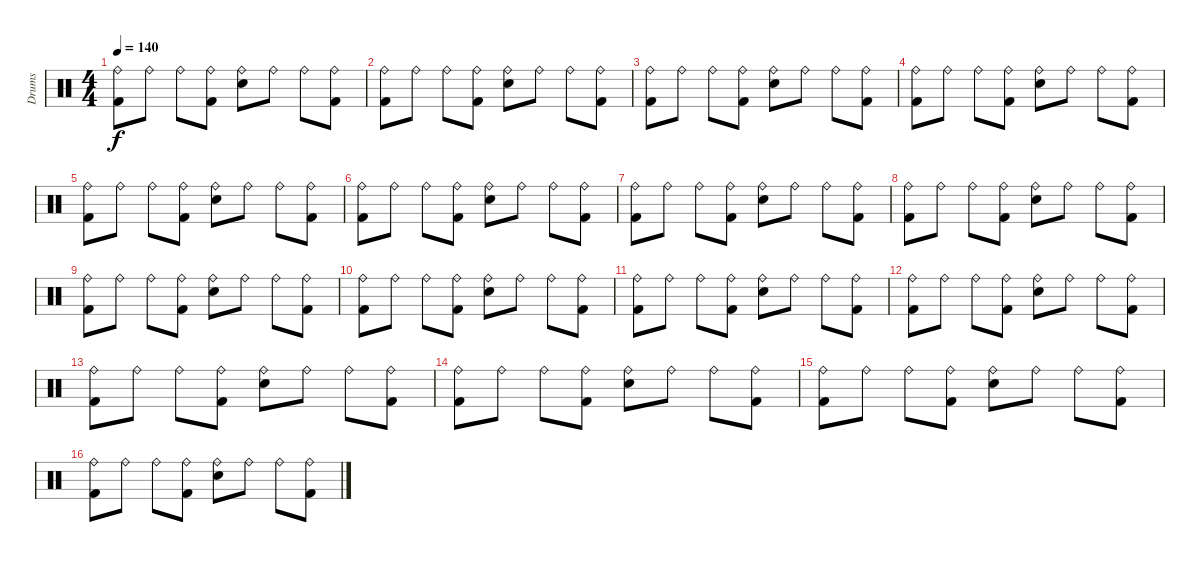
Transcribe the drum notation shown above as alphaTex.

\track ("Drums" "Drums") {instrument percussion}
\staff {score}
\articulation defaults
\ts (4 4)
\tempo 140
\clef neutral
\ks c
("Ride (bell)" "Kick (hit) 2").8{dy f} "Ride (bell)".8 "Ride (bell)".8 ("Ride (bell)" "Kick (hit) 2").8 ("Ride (bell)" "Snare (hit) 2").8 "Ride (bell)".8 "Ride (bell)".8 ("Ride (bell)" "Kick (hit) 2").8 |
("Ride (bell)" "Kick (hit) 2").8 "Ride (bell)".8 "Ride (bell)".8 ("Ride (bell)" "Kick (hit) 2").8 ("Ride (bell)" "Snare (hit) 2").8 "Ride (bell)".8 "Ride (bell)".8 ("Ride (bell)" "Kick (hit) 2").8 |
("Ride (bell)" "Kick (hit) 2").8 "Ride (bell)".8 "Ride (bell)".8 ("Ride (bell)" "Kick (hit) 2").8 ("Ride (bell)" "Snare (hit) 2").8 "Ride (bell)".8 "Ride (bell)".8 ("Ride (bell)" "Kick (hit) 2").8 |
("Ride (bell)" "Kick (hit) 2").8 "Ride (bell)".8 "Ride (bell)".8 ("Ride (bell)" "Kick (hit) 2").8 ("Ride (bell)" "Snare (hit) 2").8 "Ride (bell)".8 "Ride (bell)".8 ("Ride (bell)" "Kick (hit) 2").8 |
("Ride (bell)" "Kick (hit) 2").8 "Ride (bell)".8 "Ride (bell)".8 ("Ride (bell)" "Kick (hit) 2").8 ("Ride (bell)" "Snare (hit) 2").8 "Ride (bell)".8 "Ride (bell)".8 ("Ride (bell)" "Kick (hit) 2").8 |
("Ride (bell)" "Kick (hit) 2").8 "Ride (bell)".8 "Ride (bell)".8 ("Ride (bell)" "Kick (hit) 2").8 ("Ride (bell)" "Snare (hit) 2").8 "Ride (bell)".8 "Ride (bell)".8 ("Ride (bell)" "Kick (hit) 2").8 |
("Ride (bell)" "Kick (hit) 2").8 "Ride (bell)".8 "Ride (bell)".8 ("Ride (bell)" "Kick (hit) 2").8 ("Ride (bell)" "Snare (hit) 2").8 "Ride (bell)".8 "Ride (bell)".8 ("Ride (bell)" "Kick (hit) 2").8 |
("Ride (bell)" "Kick (hit) 2").8 "Ride (bell)".8 "Ride (bell)".8 ("Ride (bell)" "Kick (hit) 2").8 ("Ride (bell)" "Snare (hit) 2").8 "Ride (bell)".8 "Ride (bell)".8 ("Ride (bell)" "Kick (hit) 2").8 |
("Ride (bell)" "Kick (hit) 2").8 "Ride (bell)".8 "Ride (bell)".8 ("Ride (bell)" "Kick (hit) 2").8 ("Ride (bell)" "Snare (hit) 2").8 "Ride (bell)".8 "Ride (bell)".8 ("Ride (bell)" "Kick (hit) 2").8 |
("Ride (bell)" "Kick (hit) 2").8 "Ride (bell)".8 "Ride (bell)".8 ("Ride (bell)" "Kick (hit) 2").8 ("Ride (bell)" "Snare (hit) 2").8 "Ride (bell)".8 "Ride (bell)".8 ("Ride (bell)" "Kick (hit) 2").8 |
("Ride (bell)" "Kick (hit) 2").8 "Ride (bell)".8 "Ride (bell)".8 ("Ride (bell)" "Kick (hit) 2").8 ("Ride (bell)" "Snare (hit) 2").8 "Ride (bell)".8 "Ride (bell)".8 ("Ride (bell)" "Kick (hit) 2").8 |
("Ride (bell)" "Kick (hit) 2").8 "Ride (bell)".8 "Ride (bell)".8 ("Ride (bell)" "Kick (hit) 2").8 ("Ride (bell)" "Snare (hit) 2").8 "Ride (bell)".8 "Ride (bell)".8 ("Ride (bell)" "Kick (hit) 2").8 |
("Ride (bell)" "Kick (hit) 2").8 "Ride (bell)".8 "Ride (bell)".8 ("Ride (bell)" "Kick (hit) 2").8 ("Ride (bell)" "Snare (hit) 2").8 "Ride (bell)".8 "Ride (bell)".8 ("Ride (bell)" "Kick (hit) 2").8 |
("Ride (bell)" "Kick (hit) 2").8 "Ride (bell)".8 "Ride (bell)".8 ("Ride (bell)" "Kick (hit) 2").8 ("Ride (bell)" "Snare (hit) 2").8 "Ride (bell)".8 "Ride (bell)".8 ("Ride (bell)" "Kick (hit) 2").8 |
("Ride (bell)" "Kick (hit) 2").8 "Ride (bell)".8 "Ride (bell)".8 ("Ride (bell)" "Kick (hit) 2").8 ("Ride (bell)" "Snare (hit) 2").8 "Ride (bell)".8 "Ride (bell)".8 ("Ride (bell)" "Kick (hit) 2").8 |
("Ride (bell)" "Kick (hit) 2").8 "Ride (bell)".8 "Ride (bell)".8 ("Ride (bell)" "Kick (hit) 2").8 ("Ride (bell)" "Snare (hit) 2").8 "Ride (bell)".8 "Ride (bell)".8 ("Ride (bell)" "Kick (hit) 2").8
